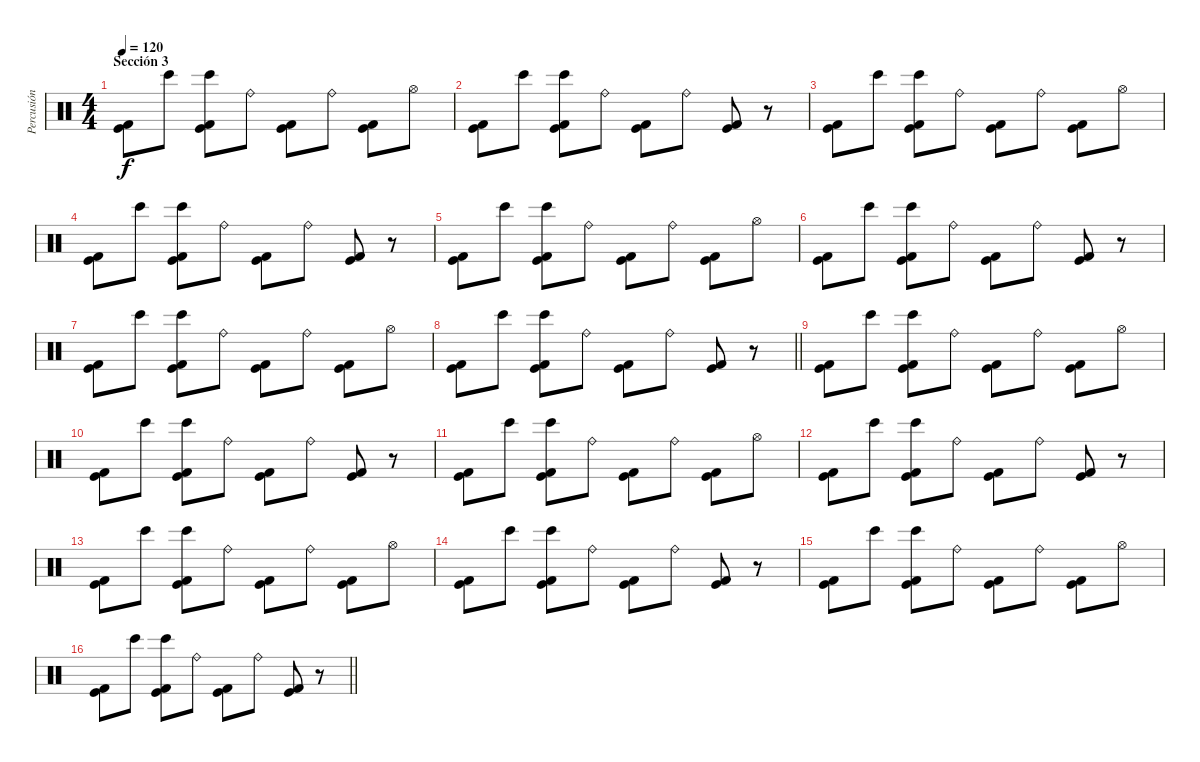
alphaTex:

\track ("Percusión 2" "Percusión ") {instrument percussion}
\staff {score}
\articulation defaults
\ts (4 4)
\section ("" "Sección 3")
\tempo 120
\clef neutral
\ks c
("Kick (hit)" "Kick (hit) 2").8{dy f} "Bongo High (hit)".8 ("Kick (hit) 2" "Kick (hit)" "Bongo High (hit)").8 "Ride (bell)".8 ("Kick (hit) 2" "Kick (hit)").8 "Ride (bell)".8 ("Kick (hit) 2" "Kick (hit)").8 "Hi-Hat (open)".8 |
("Kick (hit)" "Kick (hit) 2").8 "Bongo High (hit)".8 ("Kick (hit) 2" "Kick (hit)" "Bongo High (hit)").8 "Ride (bell)".8 ("Kick (hit) 2" "Kick (hit)").8 "Ride (bell)".8 ("Kick (hit) 2" "Kick (hit)").8 r.8 |
("Kick (hit)" "Kick (hit) 2").8 "Bongo High (hit)".8 ("Kick (hit) 2" "Kick (hit)" "Bongo High (hit)").8 "Ride (bell)".8 ("Kick (hit) 2" "Kick (hit)").8 "Ride (bell)".8 ("Kick (hit) 2" "Kick (hit)").8 "Hi-Hat (open)".8 |
("Kick (hit)" "Kick (hit) 2").8 "Bongo High (hit)".8 ("Kick (hit) 2" "Kick (hit)" "Bongo High (hit)").8 "Ride (bell)".8 ("Kick (hit) 2" "Kick (hit)").8 "Ride (bell)".8 ("Kick (hit) 2" "Kick (hit)").8 r.8 |
("Kick (hit)" "Kick (hit) 2").8 "Bongo High (hit)".8 ("Kick (hit) 2" "Kick (hit)" "Bongo High (hit)").8 "Ride (bell)".8 ("Kick (hit) 2" "Kick (hit)").8 "Ride (bell)".8 ("Kick (hit) 2" "Kick (hit)").8 "Hi-Hat (open)".8 |
("Kick (hit)" "Kick (hit) 2").8 "Bongo High (hit)".8 ("Kick (hit) 2" "Kick (hit)" "Bongo High (hit)").8 "Ride (bell)".8 ("Kick (hit) 2" "Kick (hit)").8 "Ride (bell)".8 ("Kick (hit) 2" "Kick (hit)").8 r.8 |
("Kick (hit)" "Kick (hit) 2").8 "Bongo High (hit)".8 ("Kick (hit) 2" "Kick (hit)" "Bongo High (hit)").8 "Ride (bell)".8 ("Kick (hit) 2" "Kick (hit)").8 "Ride (bell)".8 ("Kick (hit) 2" "Kick (hit)").8 "Hi-Hat (open)".8 |
\barLineRight lightlight
("Kick (hit)" "Kick (hit) 2").8 "Bongo High (hit)".8 ("Kick (hit) 2" "Kick (hit)" "Bongo High (hit)").8 "Ride (bell)".8 ("Kick (hit) 2" "Kick (hit)").8 "Ride (bell)".8 ("Kick (hit) 2" "Kick (hit)").8 r.8 |
("Kick (hit)" "Kick (hit) 2").8 "Bongo High (hit)".8 ("Kick (hit) 2" "Kick (hit)" "Bongo High (hit)").8 "Ride (bell)".8 ("Kick (hit) 2" "Kick (hit)").8 "Ride (bell)".8 ("Kick (hit) 2" "Kick (hit)").8 "Hi-Hat (open)".8 |
("Kick (hit)" "Kick (hit) 2").8 "Bongo High (hit)".8 ("Kick (hit) 2" "Kick (hit)" "Bongo High (hit)").8 "Ride (bell)".8 ("Kick (hit) 2" "Kick (hit)").8 "Ride (bell)".8 ("Kick (hit) 2" "Kick (hit)").8 r.8 |
("Kick (hit)" "Kick (hit) 2").8 "Bongo High (hit)".8 ("Kick (hit) 2" "Kick (hit)" "Bongo High (hit)").8 "Ride (bell)".8 ("Kick (hit) 2" "Kick (hit)").8 "Ride (bell)".8 ("Kick (hit) 2" "Kick (hit)").8 "Hi-Hat (open)".8 |
("Kick (hit)" "Kick (hit) 2").8 "Bongo High (hit)".8 ("Kick (hit) 2" "Kick (hit)" "Bongo High (hit)").8 "Ride (bell)".8 ("Kick (hit) 2" "Kick (hit)").8 "Ride (bell)".8 ("Kick (hit) 2" "Kick (hit)").8 r.8 |
("Kick (hit)" "Kick (hit) 2").8 "Bongo High (hit)".8 ("Kick (hit) 2" "Kick (hit)" "Bongo High (hit)").8 "Ride (bell)".8 ("Kick (hit) 2" "Kick (hit)").8 "Ride (bell)".8 ("Kick (hit) 2" "Kick (hit)").8 "Hi-Hat (open)".8 |
("Kick (hit)" "Kick (hit) 2").8 "Bongo High (hit)".8 ("Kick (hit) 2" "Kick (hit)" "Bongo High (hit)").8 "Ride (bell)".8 ("Kick (hit) 2" "Kick (hit)").8 "Ride (bell)".8 ("Kick (hit) 2" "Kick (hit)").8 r.8 |
("Kick (hit)" "Kick (hit) 2").8 "Bongo High (hit)".8 ("Kick (hit) 2" "Kick (hit)" "Bongo High (hit)").8 "Ride (bell)".8 ("Kick (hit) 2" "Kick (hit)").8 "Ride (bell)".8 ("Kick (hit) 2" "Kick (hit)").8 "Hi-Hat (open)".8 |
\barLineRight lightlight
("Kick (hit)" "Kick (hit) 2").8 "Bongo High (hit)".8 ("Kick (hit) 2" "Kick (hit)" "Bongo High (hit)").8 "Ride (bell)".8 ("Kick (hit) 2" "Kick (hit)").8 "Ride (bell)".8 ("Kick (hit) 2" "Kick (hit)").8 r.8
